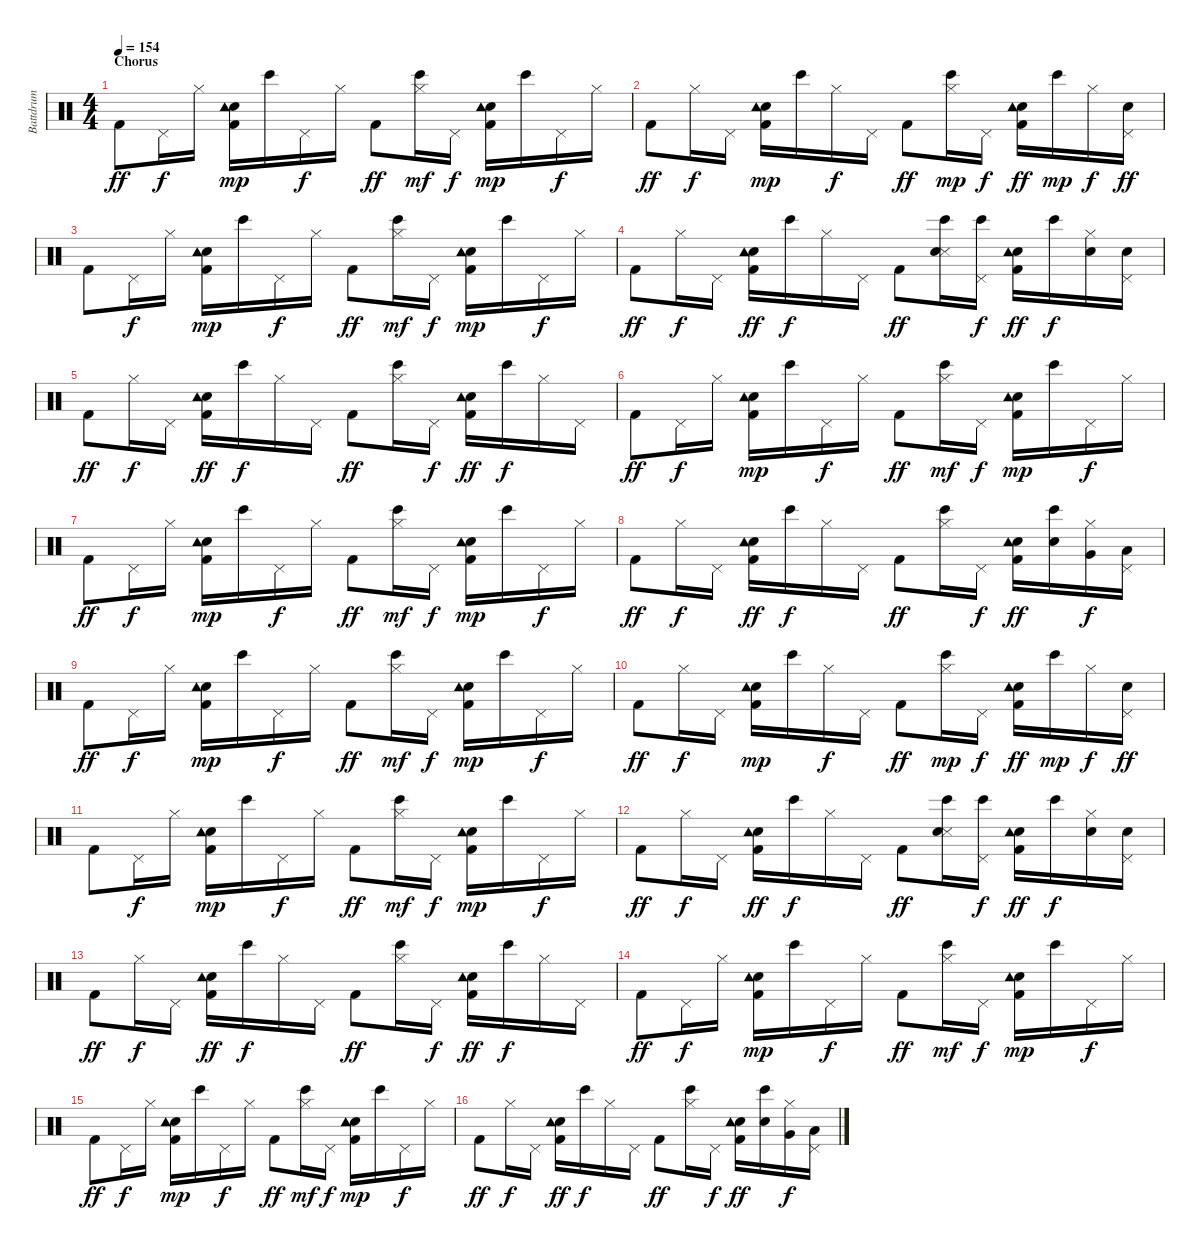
\track ("Battdrum" "Battdrum") {instrument percussion}
\staff {score}
\articulation defaults
\ts (4 4)
\section ("" "Chorus")
\tempo 154
\clef neutral
\ks c "Kick (hit) 2".8{dy ff} "Pedal Hi-Hat (hit)".16{dy f} "Hi-Hat (closed)".16
("Kick (hit) 2" "Electric Snare (hit)" "Tambourine (hit)").16{dy mp} "Bongo High (hit)".16 "Pedal Hi-Hat (hit)".16{dy f} "Hi-Hat (closed)".16 "Kick (hit) 2".8{dy ff} ("Bongo High (hit)" "Hi-Hat (closed)").16{dy mf} "Pedal Hi-Hat (hit)".16{dy f} ("Kick (hit) 2" "Electric Snare (hit)" "Tambourine (hit)").16{dy mp} "Bongo High (hit)".16 "Pedal Hi-Hat (hit)".16{dy f} "Hi-Hat (closed)".16 |
"Kick (hit) 2".8{dy ff} "Hi-Hat (closed)".16{dy f} "Pedal Hi-Hat (hit)".16 ("Kick (hit) 2" "Electric Snare (hit)" "Tambourine (hit)").16{dy mp} "Bongo High (hit)".16 "Hi-Hat (closed)".16{dy f} "Pedal Hi-Hat (hit)".16 "Kick (hit) 2".8{dy ff} ("Bongo High (hit)" "Hi-Hat (closed)").16{dy mp} "Pedal Hi-Hat (hit)".16{dy f} ("Kick (hit) 2" "Electric Snare (hit)" "Tambourine (hit)").16{dy ff} "Bongo High (hit)".16{dy mp} "Hi-Hat (closed)".16{dy f} ("Electric Snare (hit)" "Pedal Hi-Hat (hit)").16{dy ff} |
"Kick (hit) 2".8 "Pedal Hi-Hat (hit)".16{dy f} "Hi-Hat (closed)".16 ("Kick (hit) 2" "Electric Snare (hit)" "Tambourine (hit)").16{dy mp} "Bongo High (hit)".16 "Pedal Hi-Hat (hit)".16{dy f} "Hi-Hat (closed)".16 "Kick (hit) 2".8{dy ff} ("Bongo High (hit)" "Hi-Hat (closed)").16{dy mf} "Pedal Hi-Hat (hit)".16{dy f} ("Kick (hit) 2" "Electric Snare (hit)" "Tambourine (hit)").16{dy mp} "Bongo High (hit)".16 "Pedal Hi-Hat (hit)".16{dy f} "Hi-Hat (closed)".16 |
"Kick (hit) 2".8{dy ff} "Hi-Hat (closed)".16{dy f} "Pedal Hi-Hat (hit)".16 ("Kick (hit) 2" "Electric Snare (hit)" "Tambourine (hit)").16{dy ff} "Bongo High (hit)".16{dy f} "Hi-Hat (closed)".16 "Pedal Hi-Hat (hit)".16 "Kick (hit) 2".8{dy ff} ("Snare (side stick) 3" "Electric Snare (hit)" "Bongo High (hit)").16 ("Bongo High (hit)" "Pedal Hi-Hat (hit)").16{dy f} ("Kick (hit) 2" "Electric Snare (hit)" "Tambourine (hit)").16{dy ff} "Bongo High (hit)".16{dy f} ("Electric Snare (hit)" "Hi-Hat (closed)").16 ("Electric Snare (hit)" "Pedal Hi-Hat (hit)").16 |
"Kick (hit) 2".8{dy ff} "Hi-Hat (closed)".16{dy f} "Pedal Hi-Hat (hit)".16 ("Kick (hit) 2" "Electric Snare (hit)" "Tambourine (hit)").16{dy ff} "Bongo High (hit)".16{dy f} "Hi-Hat (closed)".16 "Pedal Hi-Hat (hit)".16 "Kick (hit) 2".8{dy ff} ("Bongo High (hit)" "Hi-Hat (closed)").16 "Pedal Hi-Hat (hit)".16{dy f} ("Kick (hit) 2" "Electric Snare (hit)" "Tambourine (hit)").16{dy ff} "Bongo High (hit)".16{dy f} "Hi-Hat (closed)".16 "Pedal Hi-Hat (hit)".16 |
"Kick (hit) 2".8{dy ff} "Pedal Hi-Hat (hit)".16{dy f} "Hi-Hat (closed)".16 ("Kick (hit) 2" "Electric Snare (hit)" "Tambourine (hit)").16{dy mp} "Bongo High (hit)".16 "Pedal Hi-Hat (hit)".16{dy f} "Hi-Hat (closed)".16 "Kick (hit) 2".8{dy ff} ("Bongo High (hit)" "Hi-Hat (closed)").16{dy mf} "Pedal Hi-Hat (hit)".16{dy f} ("Kick (hit) 2" "Electric Snare (hit)" "Tambourine (hit)").16{dy mp} "Bongo High (hit)".16 "Pedal Hi-Hat (hit)".16{dy f} "Hi-Hat (closed)".16 |
"Kick (hit) 2".8{dy ff} "Pedal Hi-Hat (hit)".16{dy f} "Hi-Hat (closed)".16 ("Kick (hit) 2" "Electric Snare (hit)" "Tambourine (hit)").16{dy mp} "Bongo High (hit)".16 "Pedal Hi-Hat (hit)".16{dy f} "Hi-Hat (closed)".16 "Kick (hit) 2".8{dy ff} ("Bongo High (hit)" "Hi-Hat (closed)").16{dy mf} "Pedal Hi-Hat (hit)".16{dy f} ("Kick (hit) 2" "Electric Snare (hit)" "Tambourine (hit)").16{dy mp} "Bongo High (hit)".16 "Pedal Hi-Hat (hit)".16{dy f} "Hi-Hat (closed)".16 |
"Kick (hit) 2".8{dy ff} "Hi-Hat (closed)".16{dy f} "Pedal Hi-Hat (hit)".16 ("Kick (hit) 2" "Electric Snare (hit)" "Tambourine (hit)").16{dy ff} "Bongo High (hit)".16{dy f} "Hi-Hat (closed)".16 "Pedal Hi-Hat (hit)".16 "Kick (hit) 2".8{dy ff} ("Bongo High (hit)" "Hi-Hat (closed)").16 "Pedal Hi-Hat (hit)".16{dy f} ("Kick (hit) 2" "Electric Snare (hit)" "Tambourine (hit)").16{dy ff} ("Electric Snare (hit)" "Bongo High (hit)").16 ("Hi-Hat (closed)" "Very Low Tom (hit)").16{dy f} ("Pedal Hi-Hat (hit)" "Low Tom (hit)").16 |
"Kick (hit) 2".8{dy ff} "Pedal Hi-Hat (hit)".16{dy f} "Hi-Hat (closed)".16 ("Kick (hit) 2" "Electric Snare (hit)" "Tambourine (hit)").16{dy mp} "Bongo High (hit)".16 "Pedal Hi-Hat (hit)".16{dy f} "Hi-Hat (closed)".16 "Kick (hit) 2".8{dy ff} ("Bongo High (hit)" "Hi-Hat (closed)").16{dy mf} "Pedal Hi-Hat (hit)".16{dy f} ("Kick (hit) 2" "Electric Snare (hit)" "Tambourine (hit)").16{dy mp} "Bongo High (hit)".16 "Pedal Hi-Hat (hit)".16{dy f} "Hi-Hat (closed)".16 |
"Kick (hit) 2".8{dy ff} "Hi-Hat (closed)".16{dy f} "Pedal Hi-Hat (hit)".16 ("Kick (hit) 2" "Electric Snare (hit)" "Tambourine (hit)").16{dy mp} "Bongo High (hit)".16 "Hi-Hat (closed)".16{dy f} "Pedal Hi-Hat (hit)".16 "Kick (hit) 2".8{dy ff} ("Bongo High (hit)" "Hi-Hat (closed)").16{dy mp} "Pedal Hi-Hat (hit)".16{dy f} ("Kick (hit) 2" "Electric Snare (hit)" "Tambourine (hit)").16{dy ff} "Bongo High (hit)".16{dy mp} "Hi-Hat (closed)".16{dy f} ("Electric Snare (hit)" "Pedal Hi-Hat (hit)").16{dy ff} |
"Kick (hit) 2".8 "Pedal Hi-Hat (hit)".16{dy f} "Hi-Hat (closed)".16 ("Kick (hit) 2" "Electric Snare (hit)" "Tambourine (hit)").16{dy mp} "Bongo High (hit)".16 "Pedal Hi-Hat (hit)".16{dy f} "Hi-Hat (closed)".16 "Kick (hit) 2".8{dy ff} ("Bongo High (hit)" "Hi-Hat (closed)").16{dy mf} "Pedal Hi-Hat (hit)".16{dy f} ("Kick (hit) 2" "Electric Snare (hit)" "Tambourine (hit)").16{dy mp} "Bongo High (hit)".16 "Pedal Hi-Hat (hit)".16{dy f} "Hi-Hat (closed)".16 |
"Kick (hit) 2".8{dy ff} "Hi-Hat (closed)".16{dy f} "Pedal Hi-Hat (hit)".16 ("Kick (hit) 2" "Electric Snare (hit)" "Tambourine (hit)").16{dy ff} "Bongo High (hit)".16{dy f} "Hi-Hat (closed)".16 "Pedal Hi-Hat (hit)".16 "Kick (hit) 2".8{dy ff} ("Snare (side stick) 3" "Electric Snare (hit)" "Bongo High (hit)").16 ("Bongo High (hit)" "Pedal Hi-Hat (hit)").16{dy f} ("Kick (hit) 2" "Electric Snare (hit)" "Tambourine (hit)").16{dy ff} "Bongo High (hit)".16{dy f} ("Electric Snare (hit)" "Hi-Hat (closed)").16 ("Electric Snare (hit)" "Pedal Hi-Hat (hit)").16 |
"Kick (hit) 2".8{dy ff} "Hi-Hat (closed)".16{dy f} "Pedal Hi-Hat (hit)".16 ("Kick (hit) 2" "Electric Snare (hit)" "Tambourine (hit)").16{dy ff} "Bongo High (hit)".16{dy f} "Hi-Hat (closed)".16 "Pedal Hi-Hat (hit)".16 "Kick (hit) 2".8{dy ff} ("Bongo High (hit)" "Hi-Hat (closed)").16 "Pedal Hi-Hat (hit)".16{dy f} ("Kick (hit) 2" "Electric Snare (hit)" "Tambourine (hit)").16{dy ff} "Bongo High (hit)".16{dy f} "Hi-Hat (closed)".16 "Pedal Hi-Hat (hit)".16 |
"Kick (hit) 2".8{dy ff} "Pedal Hi-Hat (hit)".16{dy f} "Hi-Hat (closed)".16 ("Kick (hit) 2" "Electric Snare (hit)" "Tambourine (hit)").16{dy mp} "Bongo High (hit)".16 "Pedal Hi-Hat (hit)".16{dy f} "Hi-Hat (closed)".16 "Kick (hit) 2".8{dy ff} ("Bongo High (hit)" "Hi-Hat (closed)").16{dy mf} "Pedal Hi-Hat (hit)".16{dy f} ("Kick (hit) 2" "Electric Snare (hit)" "Tambourine (hit)").16{dy mp} "Bongo High (hit)".16 "Pedal Hi-Hat (hit)".16{dy f} "Hi-Hat (closed)".16 |
"Kick (hit) 2".8{dy ff} "Pedal Hi-Hat (hit)".16{dy f} "Hi-Hat (closed)".16 ("Kick (hit) 2" "Electric Snare (hit)" "Tambourine (hit)").16{dy mp} "Bongo High (hit)".16 "Pedal Hi-Hat (hit)".16{dy f} "Hi-Hat (closed)".16 "Kick (hit) 2".8{dy ff} ("Bongo High (hit)" "Hi-Hat (closed)").16{dy mf} "Pedal Hi-Hat (hit)".16{dy f} ("Kick (hit) 2" "Electric Snare (hit)" "Tambourine (hit)").16{dy mp} "Bongo High (hit)".16 "Pedal Hi-Hat (hit)".16{dy f} "Hi-Hat (closed)".16 |
"Kick (hit) 2".8{dy ff} "Hi-Hat (closed)".16{dy f} "Pedal Hi-Hat (hit)".16 ("Kick (hit) 2" "Electric Snare (hit)" "Tambourine (hit)").16{dy ff} "Bongo High (hit)".16{dy f} "Hi-Hat (closed)".16 "Pedal Hi-Hat (hit)".16 "Kick (hit) 2".8{dy ff} ("Bongo High (hit)" "Hi-Hat (closed)").16 "Pedal Hi-Hat (hit)".16{dy f} ("Kick (hit) 2" "Electric Snare (hit)" "Tambourine (hit)").16{dy ff} ("Electric Snare (hit)" "Bongo High (hit)").16 ("Hi-Hat (closed)" "Very Low Tom (hit)").16{dy f} ("Pedal Hi-Hat (hit)" "Low Tom (hit)").16
